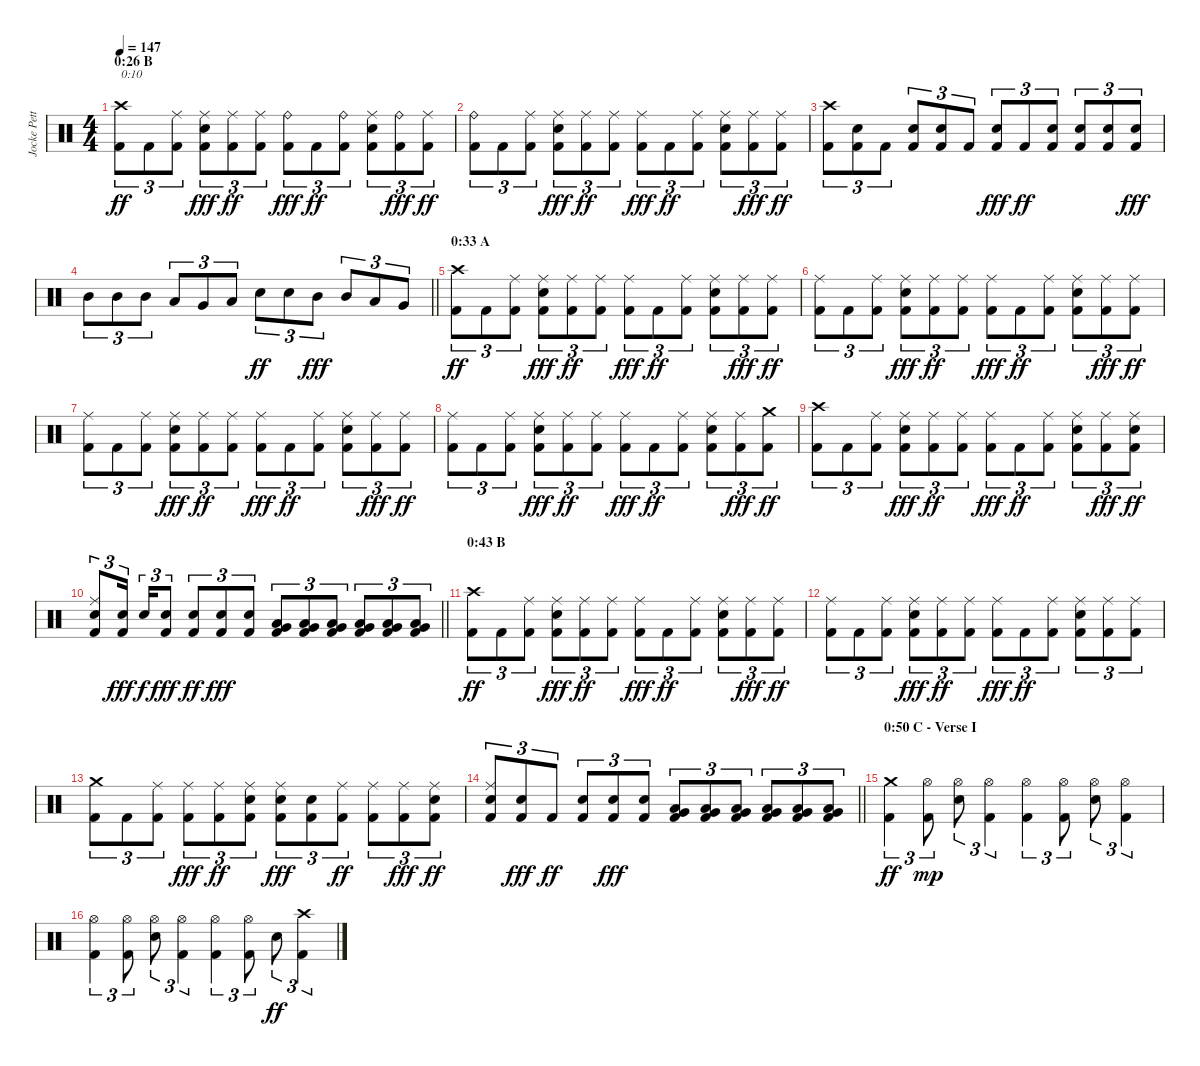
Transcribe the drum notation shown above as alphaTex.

\track ("Jocke Pettersson" "Jocke Pett") {instrument percussion}
\staff {score}
\articulation defaults
\ts (4 4)
\section ("" "0:26 B")
\tempo 147
\clef neutral
\ks c
("Kick (hit) 2" "Crash high (hit)").8{tu (3 2) txt "0:10" dy ff} "Kick (hit) 2".8{tu (3 2)} ("Kick (hit) 2" "Ride (middle)").8{tu (3 2)} ("Kick (hit) 2" "Electric Snare (hit)" "Ride (middle)").8{tu (3 2) dy fff} ("Kick (hit) 2" "Ride (middle)").8{tu (3 2) dy ff} ("Kick (hit) 2" "Ride (middle)").8{tu (3 2)} ("Kick (hit) 2" "Ride (bell)").8{tu (3 2) dy fff} "Kick (hit) 2".8{tu (3 2) dy ff} ("Kick (hit) 2" "Ride (bell)").8{tu (3 2)} ("Kick (hit) 2" "Electric Snare (hit)" "Ride (middle)").8{tu (3 2)} ("Kick (hit) 2" "Ride (bell)").8{tu (3 2) dy fff} ("Kick (hit) 2" "Ride (middle)").8{tu (3 2) dy ff} |
("Kick (hit) 2" "Ride (bell)").8{tu (3 2)} "Kick (hit) 2".8{tu (3 2)} ("Kick (hit) 2" "Ride (middle)").8{tu (3 2)} ("Kick (hit) 2" "Electric Snare (hit)" "Ride (middle)").8{tu (3 2) dy fff} ("Kick (hit) 2" "Ride (middle)").8{tu (3 2) dy ff} ("Kick (hit) 2" "Ride (middle)").8{tu (3 2)} ("Kick (hit) 2" "Ride (middle)").8{tu (3 2) dy fff} "Kick (hit) 2".8{tu (3 2) dy ff} ("Kick (hit) 2" "Ride (middle)").8{tu (3 2)} ("Kick (hit) 2" "Electric Snare (hit)" "Ride (middle)").8{tu (3 2)} ("Kick (hit) 2" "Ride (middle)").8{tu (3 2) dy fff} ("Kick (hit) 2" "Ride (middle)").8{tu (3 2) dy ff} |
("Kick (hit) 2" "Crash high (hit)").8{tu (3 2)} ("Kick (hit) 2" "Electric Snare (hit)").8{tu (3 2)} "Kick (hit) 2".8{tu (3 2)} ("Kick (hit) 2" "Electric Snare (hit)").8{tu (3 2)} ("Kick (hit) 2" "Electric Snare (hit)").8{tu (3 2)} "Kick (hit) 2".8{tu (3 2)} ("Kick (hit) 2" "Electric Snare (hit)").8{tu (3 2) dy fff} "Kick (hit) 2".8{tu (3 2) dy ff} ("Kick (hit) 2" "Electric Snare (hit)").8{tu (3 2)} ("Kick (hit) 2" "Electric Snare (hit)").8{tu (3 2)} ("Kick (hit) 2" "Electric Snare (hit)").8{tu (3 2)} ("Kick (hit) 2" "Electric Snare (hit)").8{tu (3 2) dy fff} |
\barLineRight lightlight "Mid Tom (hit)".8{tu (3 2)} "Mid Tom (hit)".8{tu (3 2)} "Mid Tom (hit)".8{tu (3 2)} "Low Tom (hit)".8{tu (3 2)} "Very Low Tom (hit)".8{tu (3 2)} "Low Tom (hit)".8{tu (3 2)} "Electric Snare (hit)".8{tu (3 2) dy ff} "Electric Snare (hit)".8{tu (3 2)} "Mid Tom (hit)".8{tu (3 2) dy fff} "Mid Tom (hit)".8{tu (3 2)} "Low Tom (hit)".8{tu (3 2)} "Very Low Tom (hit)".8{tu (3 2)}
|
\section ("" "0:33 A")
("Kick (hit) 2" "Crash high (hit)").8{tu (3 2) dy ff} "Kick (hit) 2".8{tu (3 2)} ("Kick (hit) 2" "Ride (middle)").8{tu (3 2)} ("Kick (hit) 2" "Electric Snare (hit)" "Ride (middle)").8{tu (3 2) dy fff} ("Kick (hit) 2" "Ride (middle)").8{tu (3 2) dy ff} ("Kick (hit) 2" "Ride (middle)").8{tu (3 2)} ("Kick (hit) 2" "Ride (middle)").8{tu (3 2) dy fff} "Kick (hit) 2".8{tu (3 2) dy ff} ("Kick (hit) 2" "Ride (middle)").8{tu (3 2)} ("Kick (hit) 2" "Electric Snare (hit)" "Ride (middle)").8{tu (3 2)} ("Kick (hit) 2" "Ride (middle)").8{tu (3 2) dy fff} ("Kick (hit) 2" "Ride (middle)").8{tu (3 2) dy ff} |
("Kick (hit) 2" "Ride (middle)").8{tu (3 2)} "Kick (hit) 2".8{tu (3 2)} ("Kick (hit) 2" "Ride (middle)").8{tu (3 2)} ("Kick (hit) 2" "Electric Snare (hit)" "Ride (middle)").8{tu (3 2) dy fff} ("Kick (hit) 2" "Ride (middle)").8{tu (3 2) dy ff} ("Kick (hit) 2" "Ride (middle)").8{tu (3 2)} ("Kick (hit) 2" "Ride (middle)").8{tu (3 2) dy fff} "Kick (hit) 2".8{tu (3 2) dy ff} ("Kick (hit) 2" "Ride (middle)").8{tu (3 2)} ("Kick (hit) 2" "Electric Snare (hit)" "Ride (middle)").8{tu (3 2)} ("Kick (hit) 2" "Ride (middle)").8{tu (3 2) dy fff} ("Kick (hit) 2" "Ride (middle)").8{tu (3 2) dy ff} |
("Kick (hit) 2" "Ride (middle)").8{tu (3 2)} "Kick (hit) 2".8{tu (3 2)} ("Kick (hit) 2" "Ride (middle)").8{tu (3 2)} ("Kick (hit) 2" "Electric Snare (hit)" "Ride (middle)").8{tu (3 2) dy fff} ("Kick (hit) 2" "Ride (middle)").8{tu (3 2) dy ff} ("Kick (hit) 2" "Ride (middle)").8{tu (3 2)} ("Kick (hit) 2" "Ride (middle)").8{tu (3 2) dy fff} "Kick (hit) 2".8{tu (3 2) dy ff} ("Kick (hit) 2" "Ride (middle)").8{tu (3 2)} ("Kick (hit) 2" "Electric Snare (hit)" "Ride (middle)").8{tu (3 2)} ("Kick (hit) 2" "Ride (middle)").8{tu (3 2) dy fff} ("Kick (hit) 2" "Ride (middle)").8{tu (3 2) dy ff} |
("Kick (hit) 2" "Ride (middle)").8{tu (3 2)} "Kick (hit) 2".8{tu (3 2)} ("Kick (hit) 2" "Ride (middle)").8{tu (3 2)} ("Kick (hit) 2" "Electric Snare (hit)" "Ride (middle)").8{tu (3 2) dy fff} ("Kick (hit) 2" "Ride (middle)").8{tu (3 2) dy ff} ("Kick (hit) 2" "Ride (middle)").8{tu (3 2)} ("Kick (hit) 2" "Ride (middle)").8{tu (3 2) dy fff} "Kick (hit) 2".8{tu (3 2) dy ff} ("Kick (hit) 2" "Ride (middle)").8{tu (3 2)} ("Kick (hit) 2" "Electric Snare (hit)" "Ride (middle)").8{tu (3 2)} ("Kick (hit) 2" "Ride (middle)").8{tu (3 2) dy fff} ("Kick (hit) 2" "Crash medium (hit)").8{tu (3 2) dy ff} |
("Kick (hit) 2" "Crash high (hit)").8{tu (3 2)} "Kick (hit) 2".8{tu (3 2)} ("Kick (hit) 2" "Ride (middle)").8{tu (3 2)} ("Kick (hit) 2" "Electric Snare (hit)" "Ride (middle)").8{tu (3 2) dy fff} ("Kick (hit) 2" "Ride (middle)").8{tu (3 2) dy ff} ("Kick (hit) 2" "Ride (middle)").8{tu (3 2)} ("Kick (hit) 2" "Ride (middle)").8{tu (3 2) dy fff} "Kick (hit) 2".8{tu (3 2) dy ff} ("Kick (hit) 2" "Ride (middle)").8{tu (3 2)} ("Kick (hit) 2" "Electric Snare (hit)" "Ride (middle)").8{tu (3 2)} ("Kick (hit) 2" "Ride (middle)").8{tu (3 2) dy fff} ("Kick (hit) 2" "Electric Snare (hit)" "Ride (middle)").8{tu (3 2) dy ff} |
\barLineRight lightlight
("Kick (hit) 2" "Electric Snare (hit)" "Ride (middle)").8{tu (3 2)} ("Kick (hit) 2" "Electric Snare (hit)").16{tu (3 2) dy fff beam splitsecondary} "Electric Snare (hit)".16{tu (3 2) dy f} ("Kick (hit) 2" "Electric Snare (hit)").8{tu (3 2) dy fff} ("Kick (hit) 2" "Electric Snare (hit)").8{tu (3 2) dy ff} ("Kick (hit) 2" "Electric Snare (hit)").8{tu (3 2) dy fff} ("Kick (hit) 2" "Electric Snare (hit)").8{tu (3 2)} ("Kick (hit) 2" "Low Tom (hit)" "Very Low Tom (hit)").8{tu (3 2)} ("Kick (hit) 2" "Low Tom (hit)" "Very Low Tom (hit)").8{tu (3 2)} ("Kick (hit) 2" "Low Tom (hit)" "Very Low Tom (hit)").8{tu (3 2)} ("Kick (hit) 2" "Very Low Tom (hit)" "Low Floor Tom (hit)").8{tu (3 2)} ("Kick (hit) 2" "Very Low Tom (hit)" "Low Floor Tom (hit)").8{tu (3 2)} ("Kick (hit) 2" "Very Low Tom (hit)" "Low Floor Tom (hit)").8{tu (3 2)} |
\section ("" "0:43 B ")
("Kick (hit) 2" "Crash high (hit)").8{tu (3 2) dy ff} "Kick (hit) 2".8{tu (3 2)} ("Kick (hit) 2" "Ride (middle)").8{tu (3 2)} ("Kick (hit) 2" "Electric Snare (hit)" "Ride (middle)").8{tu (3 2) dy fff} ("Kick (hit) 2" "Ride (middle)").8{tu (3 2) dy ff} ("Kick (hit) 2" "Ride (middle)").8{tu (3 2)} ("Kick (hit) 2" "Ride (middle)").8{tu (3 2) dy fff} "Kick (hit) 2".8{tu (3 2) dy ff} ("Kick (hit) 2" "Ride (middle)").8{tu (3 2)} ("Kick (hit) 2" "Electric Snare (hit)" "Ride (middle)").8{tu (3 2)} ("Kick (hit) 2" "Ride (middle)").8{tu (3 2) dy fff} ("Kick (hit) 2" "Ride (middle)").8{tu (3 2) dy ff} |
("Kick (hit) 2" "Ride (middle)").8{tu (3 2)} "Kick (hit) 2".8{tu (3 2)} ("Kick (hit) 2" "Ride (middle)").8{tu (3 2)} ("Kick (hit) 2" "Electric Snare (hit)" "Ride (middle)").8{tu (3 2) dy fff} ("Kick (hit) 2" "Ride (middle)").8{tu (3 2) dy ff} ("Kick (hit) 2" "Ride (middle)").8{tu (3 2)} ("Kick (hit) 2" "Ride (middle)").8{tu (3 2) dy fff} "Kick (hit) 2".8{tu (3 2) dy ff} ("Kick (hit) 2" "Ride (middle)").8{tu (3 2)} ("Kick (hit) 2" "Electric Snare (hit)" "Ride (middle)").8{tu (3 2)} ("Kick (hit) 2" "Ride (middle)").8{tu (3 2)} ("Kick (hit) 2" "Ride (middle)").8{tu (3 2)} |
("Kick (hit) 2" "Crash medium (hit)").8{tu (3 2)} "Kick (hit) 2".8{tu (3 2)} ("Kick (hit) 2" "Ride (middle)").8{tu (3 2)} ("Kick (hit) 2" "Ride (middle)").8{tu (3 2) dy fff} ("Kick (hit) 2" "Ride (middle)").8{tu (3 2) dy ff} ("Kick (hit) 2" "Electric Snare (hit)" "Ride (middle)").8{tu (3 2)} ("Kick (hit) 2" "Electric Snare (hit)" "Ride (middle)").8{tu (3 2) dy fff} ("Kick (hit) 2" "Electric Snare (hit)").8{tu (3 2)} ("Kick (hit) 2" "Ride (middle)").8{tu (3 2) dy ff} ("Kick (hit) 2" "Ride (middle)").8{tu (3 2)} ("Kick (hit) 2" "Ride (middle)").8{tu (3 2) dy fff} ("Kick (hit) 2" "Electric Snare (hit)" "Ride (middle)").8{tu (3 2) dy ff} |
\barLineRight lightlight
("Kick (hit) 2" "Electric Snare (hit)" "Ride (middle)").8{tu (3 2)} ("Kick (hit) 2" "Electric Snare (hit)").8{tu (3 2) dy fff} "Kick (hit) 2".8{tu (3 2) dy ff} ("Kick (hit) 2" "Electric Snare (hit)").8{tu (3 2)} ("Kick (hit) 2" "Electric Snare (hit)").8{tu (3 2) dy fff} ("Kick (hit) 2" "Electric Snare (hit)").8{tu (3 2)} ("Kick (hit) 2" "Low Tom (hit)" "Very Low Tom (hit)").8{tu (3 2)} ("Kick (hit) 2" "Low Tom (hit)" "Very Low Tom (hit)").8{tu (3 2)} ("Kick (hit) 2" "Low Tom (hit)" "Very Low Tom (hit)").8{tu (3 2)} ("Kick (hit) 2" "Very Low Tom (hit)" "Low Floor Tom (hit)").8{tu (3 2)} ("Kick (hit) 2" "Very Low Tom (hit)" "Low Floor Tom (hit)").8{tu (3 2)} ("Kick (hit) 2" "Very Low Tom (hit)" "Low Floor Tom (hit)").8{tu (3 2)} |
\section ("" "0:50 C - Verse I ")
("Kick (hit) 2" "Crash medium (hit)").4{tu (3 2) dy ff} ("Kick (hit) 2" "Hi-Hat (open)").8{tu (3 2) dy mp} ("Electric Snare (hit)" "Hi-Hat (open)").8{tu (3 2)} ("Kick (hit) 2" "Hi-Hat (open)").4{tu (3 2)} ("Kick (hit) 2" "Hi-Hat (open)").4{tu (3 2)} ("Kick (hit) 2" "Hi-Hat (open)").8{tu (3 2)} ("Electric Snare (hit)" "Hi-Hat (open)").8{tu (3 2)} ("Kick (hit) 2" "Hi-Hat (open)").4{tu (3 2)} |
("Kick (hit) 2" "Hi-Hat (open)").4{tu (3 2)} ("Kick (hit) 2" "Hi-Hat (open)").8{tu (3 2)} ("Electric Snare (hit)" "Hi-Hat (open)").8{tu (3 2)} ("Kick (hit) 2" "Hi-Hat (open)").4{tu (3 2)} ("Kick (hit) 2" "Hi-Hat (open)").4{tu (3 2)} ("Kick (hit) 2" "Hi-Hat (open)").8{tu (3 2)} "Electric Snare (hit)".8{tu (3 2) dy ff} ("Kick (hit) 2" "Crash high (hit)").4{tu (3 2)}
